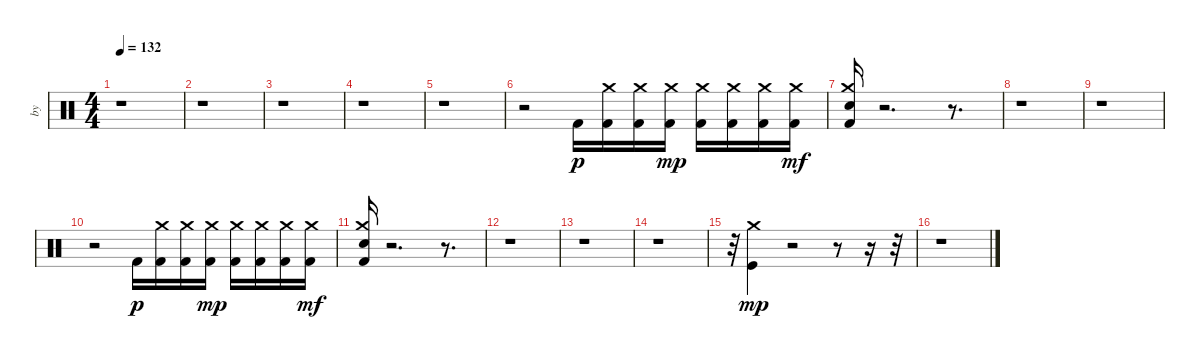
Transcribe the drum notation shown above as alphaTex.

\track ("by" "by") {instrument percussion}
\staff {score}
\articulation defaults
\ts (4 4)
\tempo 132
\clef neutral
\ks c
r.1{dy f} |
r.1 |
r.1 |
r.1 |
r.1 |
r.2 "Kick (hit) 2".16{dy p} ("Kick (hit) 2" "Crash medium (hit)").16 ("Crash medium (hit)" "Kick (hit) 2").16 ("Kick (hit) 2" "Crash medium (hit)").16{dy mp} ("Crash medium (hit)" "Kick (hit) 2").16 ("Kick (hit) 2" "Crash medium (hit)").16 ("Kick (hit) 2" "Crash medium (hit)").16 ("Crash medium (hit)" "Kick (hit) 2").16{dy mf} |
("Kick (hit) 2" "Snare (hit) 2" "Crash medium (hit)").16 r.2{d} r.8{d} |
r.1 |
r.1 |
r.2 "Kick (hit) 2".16{dy p} ("Kick (hit) 2" "Crash medium (hit)").16 ("Crash medium (hit)" "Kick (hit) 2").16 ("Kick (hit) 2" "Crash medium (hit)").16{dy mp} ("Crash medium (hit)" "Kick (hit) 2").16 ("Kick (hit) 2" "Crash medium (hit)").16 ("Kick (hit) 2" "Crash medium (hit)").16 ("Crash medium (hit)" "Kick (hit) 2").16{dy mf} |
("Kick (hit) 2" "Snare (hit) 2" "Crash medium (hit)").16 r.2{d} r.8{d} |
r.1 |
r.1 |
r.1 |
r.32 ("Crash medium (hit)" "Kick (hit)").4{dy mp} r.2 r.8 r.16 r.32 |
r.1
